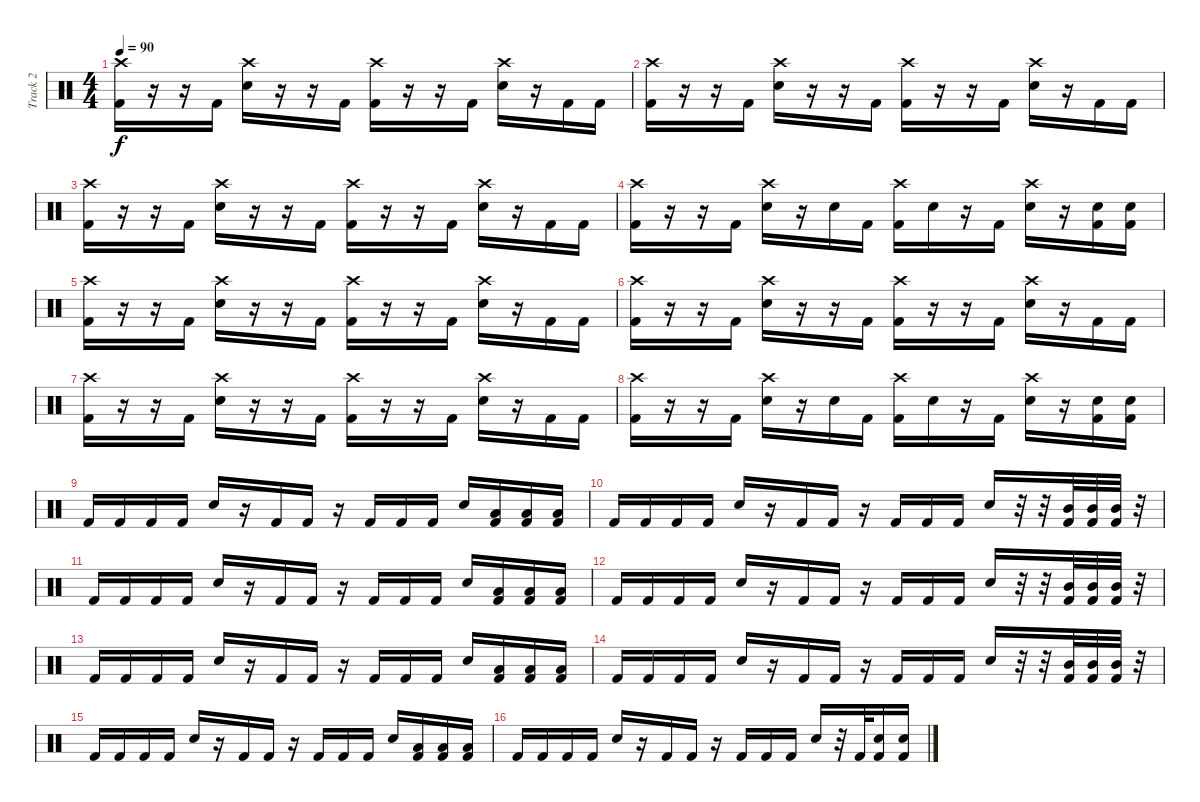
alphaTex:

\track ("Track 2" "Track 2") {instrument percussion}
\staff {score}
\articulation defaults
\ts (4 4)
\tempo 90
\clef neutral
\ks c
("Kick (hit) 2" "Crash high (hit)").16{dy f} r.16 r.16 "Kick (hit) 2".16 ("Electric Snare (hit)" "Crash high (hit)").16 r.16 r.16 "Kick (hit) 2".16 ("Kick (hit) 2" "Crash high (hit)").16 r.16 r.16 "Kick (hit) 2".16 ("Electric Snare (hit)" "Crash high (hit)").16 r.16 "Kick (hit) 2".16 "Kick (hit) 2".16 |
("Kick (hit) 2" "Crash high (hit)").16 r.16 r.16 "Kick (hit) 2".16 ("Electric Snare (hit)" "Crash high (hit)").16 r.16 r.16 "Kick (hit) 2".16 ("Kick (hit) 2" "Crash high (hit)").16 r.16 r.16 "Kick (hit) 2".16 ("Electric Snare (hit)" "Crash high (hit)").16 r.16 "Kick (hit) 2".16 "Kick (hit) 2".16 |
("Kick (hit) 2" "Crash high (hit)").16 r.16 r.16 "Kick (hit) 2".16 ("Electric Snare (hit)" "Crash high (hit)").16 r.16 r.16 "Kick (hit) 2".16 ("Kick (hit) 2" "Crash high (hit)").16 r.16 r.16 "Kick (hit) 2".16 ("Electric Snare (hit)" "Crash high (hit)").16 r.16 "Kick (hit) 2".16 "Kick (hit) 2".16 |
("Kick (hit) 2" "Crash high (hit)").16 r.16 r.16 "Kick (hit) 2".16 ("Electric Snare (hit)" "Crash high (hit)").16 r.16 "Electric Snare (hit)".16 "Kick (hit) 2".16 ("Kick (hit) 2" "Crash high (hit)").16 "Electric Snare (hit)".16 r.16 "Kick (hit) 2".16 ("Electric Snare (hit)" "Crash high (hit)").16 r.16 ("Kick (hit) 2" "Electric Snare (hit)").16 ("Kick (hit) 2" "Electric Snare (hit)").16 |
("Kick (hit) 2" "Crash high (hit)").16 r.16 r.16 "Kick (hit) 2".16 ("Electric Snare (hit)" "Crash high (hit)").16 r.16 r.16 "Kick (hit) 2".16 ("Kick (hit) 2" "Crash high (hit)").16 r.16 r.16 "Kick (hit) 2".16 ("Electric Snare (hit)" "Crash high (hit)").16 r.16 "Kick (hit) 2".16 "Kick (hit) 2".16 |
("Kick (hit) 2" "Crash high (hit)").16 r.16 r.16 "Kick (hit) 2".16 ("Electric Snare (hit)" "Crash high (hit)").16 r.16 r.16 "Kick (hit) 2".16 ("Kick (hit) 2" "Crash high (hit)").16 r.16 r.16 "Kick (hit) 2".16 ("Electric Snare (hit)" "Crash high (hit)").16 r.16 "Kick (hit) 2".16 "Kick (hit) 2".16 |
("Kick (hit) 2" "Crash high (hit)").16 r.16 r.16 "Kick (hit) 2".16 ("Electric Snare (hit)" "Crash high (hit)").16 r.16 r.16 "Kick (hit) 2".16 ("Kick (hit) 2" "Crash high (hit)").16 r.16 r.16 "Kick (hit) 2".16 ("Electric Snare (hit)" "Crash high (hit)").16 r.16 "Kick (hit) 2".16 "Kick (hit) 2".16 |
("Kick (hit) 2" "Crash high (hit)").16 r.16 r.16 "Kick (hit) 2".16 ("Electric Snare (hit)" "Crash high (hit)").16 r.16 "Electric Snare (hit)".16 "Kick (hit) 2".16 ("Kick (hit) 2" "Crash high (hit)").16 "Electric Snare (hit)".16 r.16 "Kick (hit) 2".16 ("Electric Snare (hit)" "Crash high (hit)").16 r.16 ("Kick (hit) 2" "Electric Snare (hit)").16 ("Kick (hit) 2" "Electric Snare (hit)").16 |
"Kick (hit) 2".16 "Kick (hit) 2".16 "Kick (hit) 2".16 "Kick (hit) 2".16 "Electric Snare (hit)".16 r.16 "Kick (hit) 2".16 "Kick (hit) 2".16 r.16 "Kick (hit) 2".16 "Kick (hit) 2".16 "Kick (hit) 2".16 "Electric Snare (hit)".16 ("Kick (hit) 2" "Low Tom (hit)").16 ("Kick (hit) 2" "Low Tom (hit)").16 ("Kick (hit) 2" "Low Tom (hit)").16 |
"Kick (hit) 2".16 "Kick (hit) 2".16 "Kick (hit) 2".16 "Kick (hit) 2".16 "Electric Snare (hit)".16 r.16 "Kick (hit) 2".16 "Kick (hit) 2".16 r.16 "Kick (hit) 2".16 "Kick (hit) 2".16 "Kick (hit) 2".16 "Electric Snare (hit)".16 r.32 r.32 ("Kick (hit) 2" "Mid Tom (hit)").32 ("Kick (hit) 2" "Mid Tom (hit)").32 ("Kick (hit) 2" "Mid Tom (hit)").32 r.32 |
"Kick (hit) 2".16 "Kick (hit) 2".16 "Kick (hit) 2".16 "Kick (hit) 2".16 "Electric Snare (hit)".16 r.16 "Kick (hit) 2".16 "Kick (hit) 2".16 r.16 "Kick (hit) 2".16 "Kick (hit) 2".16 "Kick (hit) 2".16 "Electric Snare (hit)".16 ("Kick (hit) 2" "Low Tom (hit)").16 ("Kick (hit) 2" "Low Tom (hit)").16 ("Kick (hit) 2" "Low Tom (hit)").16 |
"Kick (hit) 2".16 "Kick (hit) 2".16 "Kick (hit) 2".16 "Kick (hit) 2".16 "Electric Snare (hit)".16 r.16 "Kick (hit) 2".16 "Kick (hit) 2".16 r.16 "Kick (hit) 2".16 "Kick (hit) 2".16 "Kick (hit) 2".16 "Electric Snare (hit)".16 r.32 r.32 ("Kick (hit) 2" "Mid Tom (hit)").32 ("Kick (hit) 2" "Mid Tom (hit)").32 ("Kick (hit) 2" "Mid Tom (hit)").32 r.32 |
"Kick (hit) 2".16 "Kick (hit) 2".16 "Kick (hit) 2".16 "Kick (hit) 2".16 "Electric Snare (hit)".16 r.16 "Kick (hit) 2".16 "Kick (hit) 2".16 r.16 "Kick (hit) 2".16 "Kick (hit) 2".16 "Kick (hit) 2".16 "Electric Snare (hit)".16 ("Kick (hit) 2" "Low Tom (hit)").16 ("Kick (hit) 2" "Low Tom (hit)").16 ("Kick (hit) 2" "Low Tom (hit)").16 |
"Kick (hit) 2".16 "Kick (hit) 2".16 "Kick (hit) 2".16 "Kick (hit) 2".16 "Electric Snare (hit)".16 r.16 "Kick (hit) 2".16 "Kick (hit) 2".16 r.16 "Kick (hit) 2".16 "Kick (hit) 2".16 "Kick (hit) 2".16 "Electric Snare (hit)".16 r.32 r.32 ("Kick (hit) 2" "Mid Tom (hit)").32 ("Kick (hit) 2" "Mid Tom (hit)").32 ("Kick (hit) 2" "Mid Tom (hit)").32 r.32 |
"Kick (hit) 2".16 "Kick (hit) 2".16 "Kick (hit) 2".16 "Kick (hit) 2".16 "Electric Snare (hit)".16 r.16 "Kick (hit) 2".16 "Kick (hit) 2".16 r.16 "Kick (hit) 2".16 "Kick (hit) 2".16 "Kick (hit) 2".16 "Electric Snare (hit)".16 ("Kick (hit) 2" "Low Tom (hit)").16 ("Kick (hit) 2" "Low Tom (hit)").16 ("Kick (hit) 2" "Low Tom (hit)").16 |
"Kick (hit) 2".16 "Kick (hit) 2".16 "Kick (hit) 2".16 "Kick (hit) 2".16 "Electric Snare (hit)".16 r.16 "Kick (hit) 2".16 "Kick (hit) 2".16 r.16 "Kick (hit) 2".16 "Kick (hit) 2".16 "Kick (hit) 2".16 "Electric Snare (hit)".16 r.32 "Kick (hit) 2".32 ("Kick (hit) 2" "Snare (hit) 2").16 ("Snare (hit) 2" "Kick (hit) 2").16
